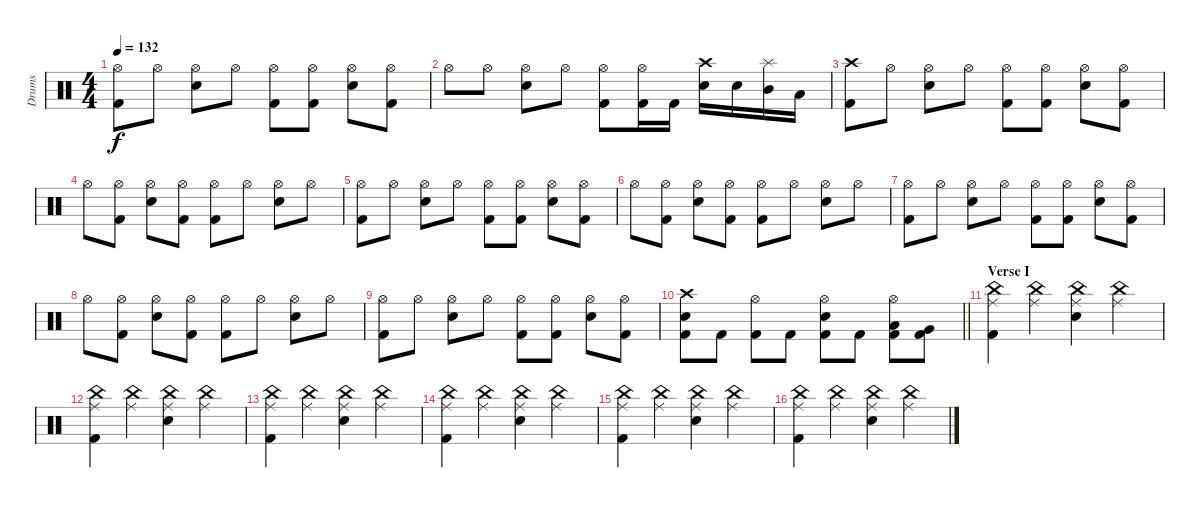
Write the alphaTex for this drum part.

\track ("Drums" "Drums") {instrument percussion}
\staff {score}
\articulation defaults
\ts (4 4)
\tempo 132
\clef neutral
\ks c
("Hi-Hat (open)" "Kick (hit) 2").8{dy f} "Hi-Hat (open)".8 ("Hi-Hat (open)" "Snare (hit) 2").8 "Hi-Hat (open)".8 ("Hi-Hat (open)" "Kick (hit) 2").8 ("Hi-Hat (open)" "Kick (hit) 2").8 ("Hi-Hat (open)" "Snare (hit) 2").8 ("Hi-Hat (open)" "Kick (hit) 2").8 |
"Hi-Hat (open)".8 "Hi-Hat (open)".8 ("Hi-Hat (open)" "Snare (hit) 2").8 "Hi-Hat (open)".8 ("Hi-Hat (open)" "Kick (hit) 2").8 ("Hi-Hat (open)" "Kick (hit) 2").16 "Kick (hit) 2".16 ("Crash high (hit)" "Snare (hit) 2").16 "Snare (hit) 2".16 ("Splash (hit)" "Mid Tom (hit)").16 "Low Tom (hit)".16 |
("Crash high (hit)" "Kick (hit) 2").8 "Hi-Hat (open)".8 ("Hi-Hat (open)" "Snare (hit) 2").8 "Hi-Hat (open)".8 ("Hi-Hat (open)" "Kick (hit) 2").8 ("Hi-Hat (open)" "Kick (hit) 2").8 ("Hi-Hat (open)" "Snare (hit) 2").8 ("Hi-Hat (open)" "Kick (hit) 2").8 |
"Hi-Hat (open)".8 ("Hi-Hat (open)" "Kick (hit) 2").8 ("Hi-Hat (open)" "Snare (hit) 2").8 ("Hi-Hat (open)" "Kick (hit) 2").8 ("Hi-Hat (open)" "Kick (hit) 2").8 "Hi-Hat (open)".8 ("Hi-Hat (open)" "Snare (hit) 2").8 "Hi-Hat (open)".8 |
("Hi-Hat (open)" "Kick (hit) 2").8 "Hi-Hat (open)".8 ("Hi-Hat (open)" "Snare (hit) 2").8 "Hi-Hat (open)".8 ("Hi-Hat (open)" "Kick (hit) 2").8 ("Hi-Hat (open)" "Kick (hit) 2").8 ("Hi-Hat (open)" "Snare (hit) 2").8 ("Hi-Hat (open)" "Kick (hit) 2").8 |
"Hi-Hat (open)".8 ("Hi-Hat (open)" "Kick (hit) 2").8 ("Hi-Hat (open)" "Snare (hit) 2").8 ("Hi-Hat (open)" "Kick (hit) 2").8 ("Hi-Hat (open)" "Kick (hit) 2").8 "Hi-Hat (open)".8 ("Hi-Hat (open)" "Snare (hit) 2").8 "Hi-Hat (open)".8 |
("Hi-Hat (open)" "Kick (hit) 2").8 "Hi-Hat (open)".8 ("Hi-Hat (open)" "Snare (hit) 2").8 "Hi-Hat (open)".8 ("Hi-Hat (open)" "Kick (hit) 2").8 ("Hi-Hat (open)" "Kick (hit) 2").8 ("Hi-Hat (open)" "Snare (hit) 2").8 ("Hi-Hat (open)" "Kick (hit) 2").8 |
"Hi-Hat (open)".8 ("Hi-Hat (open)" "Kick (hit) 2").8 ("Hi-Hat (open)" "Snare (hit) 2").8 ("Hi-Hat (open)" "Kick (hit) 2").8 ("Hi-Hat (open)" "Kick (hit) 2").8 "Hi-Hat (open)".8 ("Hi-Hat (open)" "Snare (hit) 2").8 "Hi-Hat (open)".8 |
("Hi-Hat (open)" "Kick (hit) 2").8 "Hi-Hat (open)".8 ("Hi-Hat (open)" "Snare (hit) 2").8 "Hi-Hat (open)".8 ("Hi-Hat (open)" "Kick (hit) 2").8 ("Hi-Hat (open)" "Kick (hit) 2").8 ("Hi-Hat (open)" "Snare (hit) 2").8 ("Hi-Hat (open)" "Kick (hit) 2").8 |
\barLineRight lightlight
("Crash high (hit)" "Snare (hit) 2" "Kick (hit) 2").8 "Kick (hit) 2".8 ("Hi-Hat (open)" "Kick (hit) 2").8 "Kick (hit) 2".8 ("Hi-Hat (open)" "Snare (hit) 2" "Kick (hit) 2").8 "Kick (hit) 2".8 ("Hi-Hat (open)" "Low Tom (hit)" "Kick (hit) 2").8 ("Very Low Tom (hit)" "Kick (hit) 2").8 |
\section ("" "Verse I")
("China (hit)" "Ride (middle)" "Kick (hit) 2").4 ("China (hit)" "Ride (middle)").4 ("China (hit)" "Ride (middle)" "Snare (hit) 2").4 ("China (hit)" "Ride (middle)").4 |
("China (hit)" "Ride (middle)" "Kick (hit) 2").4 ("China (hit)" "Ride (middle)").4 ("China (hit)" "Ride (middle)" "Snare (hit) 2").4 ("China (hit)" "Ride (middle)").4 |
("China (hit)" "Ride (middle)" "Kick (hit) 2").4 ("China (hit)" "Ride (middle)").4 ("China (hit)" "Ride (middle)" "Snare (hit) 2").4 ("China (hit)" "Ride (middle)").4 |
("China (hit)" "Ride (middle)" "Kick (hit) 2").4 ("China (hit)" "Ride (middle)").4 ("China (hit)" "Ride (middle)" "Snare (hit) 2").4 ("China (hit)" "Ride (middle)").4 |
("China (hit)" "Ride (middle)" "Kick (hit) 2").4 ("China (hit)" "Ride (middle)").4 ("China (hit)" "Ride (middle)" "Snare (hit) 2").4 ("China (hit)" "Ride (middle)").4 |
("China (hit)" "Ride (middle)" "Kick (hit) 2").4 ("China (hit)" "Ride (middle)").4 ("China (hit)" "Ride (middle)" "Snare (hit) 2").4 ("China (hit)" "Ride (middle)").4
